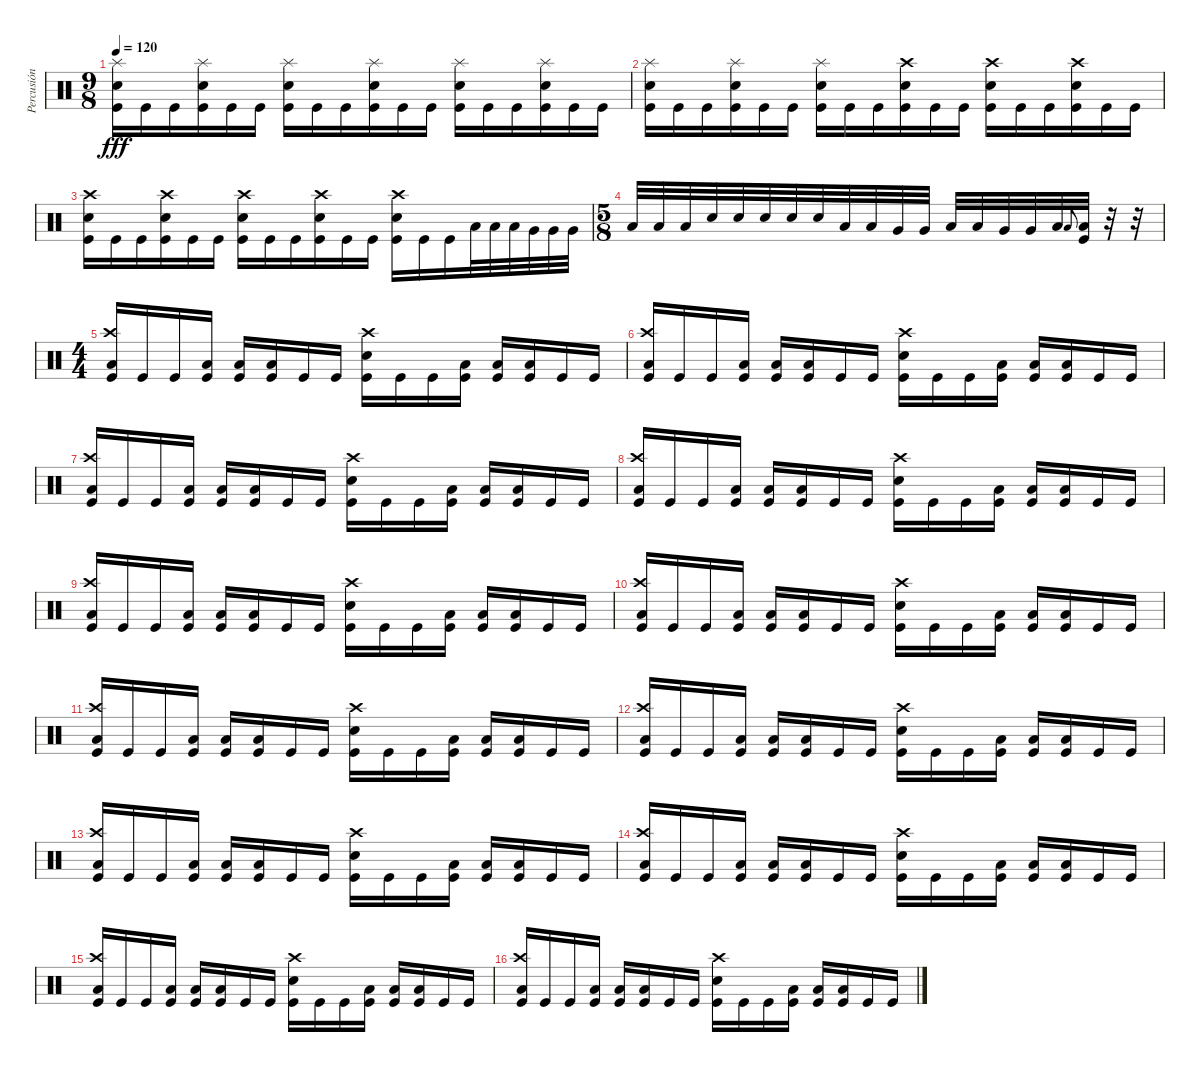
\track ("Percusión" "Percusión") {instrument percussion}
\staff {score}
\articulation defaults
\ts (9 8)
\tempo 120
\clef neutral
\ks c
("Splash (hit)" "Snare (hit) 2" "Kick (hit)").16{dy fff} "Kick (hit)".16 "Kick (hit)".16 ("Splash (hit)" "Snare (hit) 2" "Kick (hit)").16 "Kick (hit)".16 "Kick (hit)".16 ("Splash (hit)" "Snare (hit) 2" "Kick (hit)").16 "Kick (hit)".16 "Kick (hit)".16 ("Splash (hit)" "Snare (hit) 2" "Kick (hit)").16 "Kick (hit)".16 "Kick (hit)".16 ("Splash (hit)" "Snare (hit) 2" "Kick (hit)").16 "Kick (hit)".16 "Kick (hit)".16 ("Splash (hit)" "Snare (hit) 2" "Kick (hit)").16 "Kick (hit)".16 "Kick (hit)".16 |
("Splash (hit)" "Snare (hit) 2" "Kick (hit)").16 "Kick (hit)".16 "Kick (hit)".16 ("Splash (hit)" "Snare (hit) 2" "Kick (hit)").16 "Kick (hit)".16 "Kick (hit)".16 ("Splash (hit)" "Snare (hit) 2" "Kick (hit)").16 "Kick (hit)".16 "Kick (hit)".16 ("Crash high (hit)" "Snare (hit) 2" "Kick (hit)").16 "Kick (hit)".16 "Kick (hit)".16 ("Crash high (hit)" "Snare (hit) 2" "Kick (hit)").16 "Kick (hit)".16 "Kick (hit)".16 ("Crash high (hit)" "Snare (hit) 2" "Kick (hit)").16 "Kick (hit)".16 "Kick (hit)".16 |
("Crash high (hit)" "Snare (hit) 2" "Kick (hit)").16 "Kick (hit)".16 "Kick (hit)".16 ("Crash high (hit)" "Snare (hit) 2" "Kick (hit)").16 "Kick (hit)".16 "Kick (hit)".16 ("Crash high (hit)" "Snare (hit) 2" "Kick (hit)").16 "Kick (hit)".16 "Kick (hit)".16 ("Crash high (hit)" "Snare (hit) 2" "Kick (hit)").16 "Kick (hit)".16 "Kick (hit)".16 ("Crash high (hit)" "Snare (hit) 2" "Kick (hit)").16 "Kick (hit)".16 "Kick (hit)".16 "Low Floor Tom (hit)".32 "Low Floor Tom (hit)".32 "Low Floor Tom (hit)".32 "Very Low Tom (hit)".32 "Very Low Tom (hit)".32 "Very Low Tom (hit)".32 |
\ts (5 8)
"Low Floor Tom (hit)".32 "Low Floor Tom (hit)".32 "Low Floor Tom (hit)".32 "Snare (hit) 2".32 "Snare (hit) 2".32 "Snare (hit) 2".32 "Snare (hit) 2".32 "Snare (hit) 2".32 "Low Floor Tom (hit)".32 "Low Floor Tom (hit)".32 "Very Low Tom (hit)".32 "Very Low Tom (hit)".32 "Low Floor Tom (hit)".32 "Low Floor Tom (hit)".32 "Very Low Tom (hit)".32 "Very Low Tom (hit)".32 "Low Floor Tom (hit)".32 "Low Floor Tom (hit)".8{gr onbeat} ("Low Floor Tom (hit)" "Kick (hit)").32 r.32 r.32 |
\ts (4 4)
("Crash high (hit)" "Low Floor Tom (hit)" "Kick (hit)").16 "Kick (hit)".16 "Kick (hit)".16 ("Low Floor Tom (hit)" "Kick (hit)").16 ("Low Floor Tom (hit)" "Kick (hit)").16 ("Low Floor Tom (hit)" "Kick (hit)").16 "Kick (hit)".16 "Kick (hit)".16 ("Crash high (hit)" "Snare (hit) 2" "Kick (hit)").16 "Kick (hit)".16 "Kick (hit)".16 ("Low Floor Tom (hit)" "Kick (hit)").16 ("Low Floor Tom (hit)" "Kick (hit)").16 ("Low Floor Tom (hit)" "Kick (hit)").16 "Kick (hit)".16 "Kick (hit)".16 |
("Crash high (hit)" "Low Floor Tom (hit)" "Kick (hit)").16 "Kick (hit)".16 "Kick (hit)".16 ("Low Floor Tom (hit)" "Kick (hit)").16 ("Low Floor Tom (hit)" "Kick (hit)").16 ("Low Floor Tom (hit)" "Kick (hit)").16 "Kick (hit)".16 "Kick (hit)".16 ("Crash high (hit)" "Snare (hit) 2" "Kick (hit)").16 "Kick (hit)".16 "Kick (hit)".16 ("Low Floor Tom (hit)" "Kick (hit)").16 ("Low Floor Tom (hit)" "Kick (hit)").16 ("Low Floor Tom (hit)" "Kick (hit)").16 "Kick (hit)".16 "Kick (hit)".16 |
("Crash high (hit)" "Low Floor Tom (hit)" "Kick (hit)").16 "Kick (hit)".16 "Kick (hit)".16 ("Low Floor Tom (hit)" "Kick (hit)").16 ("Low Floor Tom (hit)" "Kick (hit)").16 ("Low Floor Tom (hit)" "Kick (hit)").16 "Kick (hit)".16 "Kick (hit)".16 ("Crash high (hit)" "Snare (hit) 2" "Kick (hit)").16 "Kick (hit)".16 "Kick (hit)".16 ("Low Floor Tom (hit)" "Kick (hit)").16 ("Low Floor Tom (hit)" "Kick (hit)").16 ("Low Floor Tom (hit)" "Kick (hit)").16 "Kick (hit)".16 "Kick (hit)".16 |
("Crash high (hit)" "Low Floor Tom (hit)" "Kick (hit)").16 "Kick (hit)".16 "Kick (hit)".16 ("Low Floor Tom (hit)" "Kick (hit)").16 ("Low Floor Tom (hit)" "Kick (hit)").16 ("Low Floor Tom (hit)" "Kick (hit)").16 "Kick (hit)".16 "Kick (hit)".16 ("Crash high (hit)" "Snare (hit) 2" "Kick (hit)").16 "Kick (hit)".16 "Kick (hit)".16 ("Low Floor Tom (hit)" "Kick (hit)").16 ("Low Floor Tom (hit)" "Kick (hit)").16 ("Low Floor Tom (hit)" "Kick (hit)").16 "Kick (hit)".16 "Kick (hit)".16 |
("Crash high (hit)" "Low Floor Tom (hit)" "Kick (hit)").16 "Kick (hit)".16 "Kick (hit)".16 ("Low Floor Tom (hit)" "Kick (hit)").16 ("Low Floor Tom (hit)" "Kick (hit)").16 ("Low Floor Tom (hit)" "Kick (hit)").16 "Kick (hit)".16 "Kick (hit)".16 ("Crash high (hit)" "Snare (hit) 2" "Kick (hit)").16 "Kick (hit)".16 "Kick (hit)".16 ("Low Floor Tom (hit)" "Kick (hit)").16 ("Low Floor Tom (hit)" "Kick (hit)").16 ("Low Floor Tom (hit)" "Kick (hit)").16 "Kick (hit)".16 "Kick (hit)".16 |
("Crash high (hit)" "Low Floor Tom (hit)" "Kick (hit)").16 "Kick (hit)".16 "Kick (hit)".16 ("Low Floor Tom (hit)" "Kick (hit)").16 ("Low Floor Tom (hit)" "Kick (hit)").16 ("Low Floor Tom (hit)" "Kick (hit)").16 "Kick (hit)".16 "Kick (hit)".16 ("Crash high (hit)" "Snare (hit) 2" "Kick (hit)").16 "Kick (hit)".16 "Kick (hit)".16 ("Low Floor Tom (hit)" "Kick (hit)").16 ("Low Floor Tom (hit)" "Kick (hit)").16 ("Low Floor Tom (hit)" "Kick (hit)").16 "Kick (hit)".16 "Kick (hit)".16 |
("Crash high (hit)" "Low Floor Tom (hit)" "Kick (hit)").16 "Kick (hit)".16 "Kick (hit)".16 ("Low Floor Tom (hit)" "Kick (hit)").16 ("Low Floor Tom (hit)" "Kick (hit)").16 ("Low Floor Tom (hit)" "Kick (hit)").16 "Kick (hit)".16 "Kick (hit)".16 ("Crash high (hit)" "Snare (hit) 2" "Kick (hit)").16 "Kick (hit)".16 "Kick (hit)".16 ("Low Floor Tom (hit)" "Kick (hit)").16 ("Low Floor Tom (hit)" "Kick (hit)").16 ("Low Floor Tom (hit)" "Kick (hit)").16 "Kick (hit)".16 "Kick (hit)".16 |
("Crash high (hit)" "Low Floor Tom (hit)" "Kick (hit)").16 "Kick (hit)".16 "Kick (hit)".16 ("Low Floor Tom (hit)" "Kick (hit)").16 ("Low Floor Tom (hit)" "Kick (hit)").16 ("Low Floor Tom (hit)" "Kick (hit)").16 "Kick (hit)".16 "Kick (hit)".16 ("Crash high (hit)" "Snare (hit) 2" "Kick (hit)").16 "Kick (hit)".16 "Kick (hit)".16 ("Low Floor Tom (hit)" "Kick (hit)").16 ("Low Floor Tom (hit)" "Kick (hit)").16 ("Low Floor Tom (hit)" "Kick (hit)").16 "Kick (hit)".16 "Kick (hit)".16 |
("Crash high (hit)" "Low Floor Tom (hit)" "Kick (hit)").16 "Kick (hit)".16 "Kick (hit)".16 ("Low Floor Tom (hit)" "Kick (hit)").16 ("Low Floor Tom (hit)" "Kick (hit)").16 ("Low Floor Tom (hit)" "Kick (hit)").16 "Kick (hit)".16 "Kick (hit)".16 ("Crash high (hit)" "Snare (hit) 2" "Kick (hit)").16 "Kick (hit)".16 "Kick (hit)".16 ("Low Floor Tom (hit)" "Kick (hit)").16 ("Low Floor Tom (hit)" "Kick (hit)").16 ("Low Floor Tom (hit)" "Kick (hit)").16 "Kick (hit)".16 "Kick (hit)".16 |
("Crash high (hit)" "Low Floor Tom (hit)" "Kick (hit)").16 "Kick (hit)".16 "Kick (hit)".16 ("Low Floor Tom (hit)" "Kick (hit)").16 ("Low Floor Tom (hit)" "Kick (hit)").16 ("Low Floor Tom (hit)" "Kick (hit)").16 "Kick (hit)".16 "Kick (hit)".16 ("Crash high (hit)" "Snare (hit) 2" "Kick (hit)").16 "Kick (hit)".16 "Kick (hit)".16 ("Low Floor Tom (hit)" "Kick (hit)").16 ("Low Floor Tom (hit)" "Kick (hit)").16 ("Low Floor Tom (hit)" "Kick (hit)").16 "Kick (hit)".16 "Kick (hit)".16 |
("Crash high (hit)" "Low Floor Tom (hit)" "Kick (hit)").16 "Kick (hit)".16 "Kick (hit)".16 ("Low Floor Tom (hit)" "Kick (hit)").16 ("Low Floor Tom (hit)" "Kick (hit)").16 ("Low Floor Tom (hit)" "Kick (hit)").16 "Kick (hit)".16 "Kick (hit)".16 ("Crash high (hit)" "Snare (hit) 2" "Kick (hit)").16 "Kick (hit)".16 "Kick (hit)".16 ("Low Floor Tom (hit)" "Kick (hit)").16 ("Low Floor Tom (hit)" "Kick (hit)").16 ("Low Floor Tom (hit)" "Kick (hit)").16 "Kick (hit)".16 "Kick (hit)".16 |
("Crash high (hit)" "Low Floor Tom (hit)" "Kick (hit)").16 "Kick (hit)".16 "Kick (hit)".16 ("Low Floor Tom (hit)" "Kick (hit)").16 ("Low Floor Tom (hit)" "Kick (hit)").16 ("Low Floor Tom (hit)" "Kick (hit)").16 "Kick (hit)".16 "Kick (hit)".16 ("Crash high (hit)" "Snare (hit) 2" "Kick (hit)").16 "Kick (hit)".16 "Kick (hit)".16 ("Low Floor Tom (hit)" "Kick (hit)").16 ("Low Floor Tom (hit)" "Kick (hit)").16 ("Low Floor Tom (hit)" "Kick (hit)").16 "Kick (hit)".16 "Kick (hit)".16
